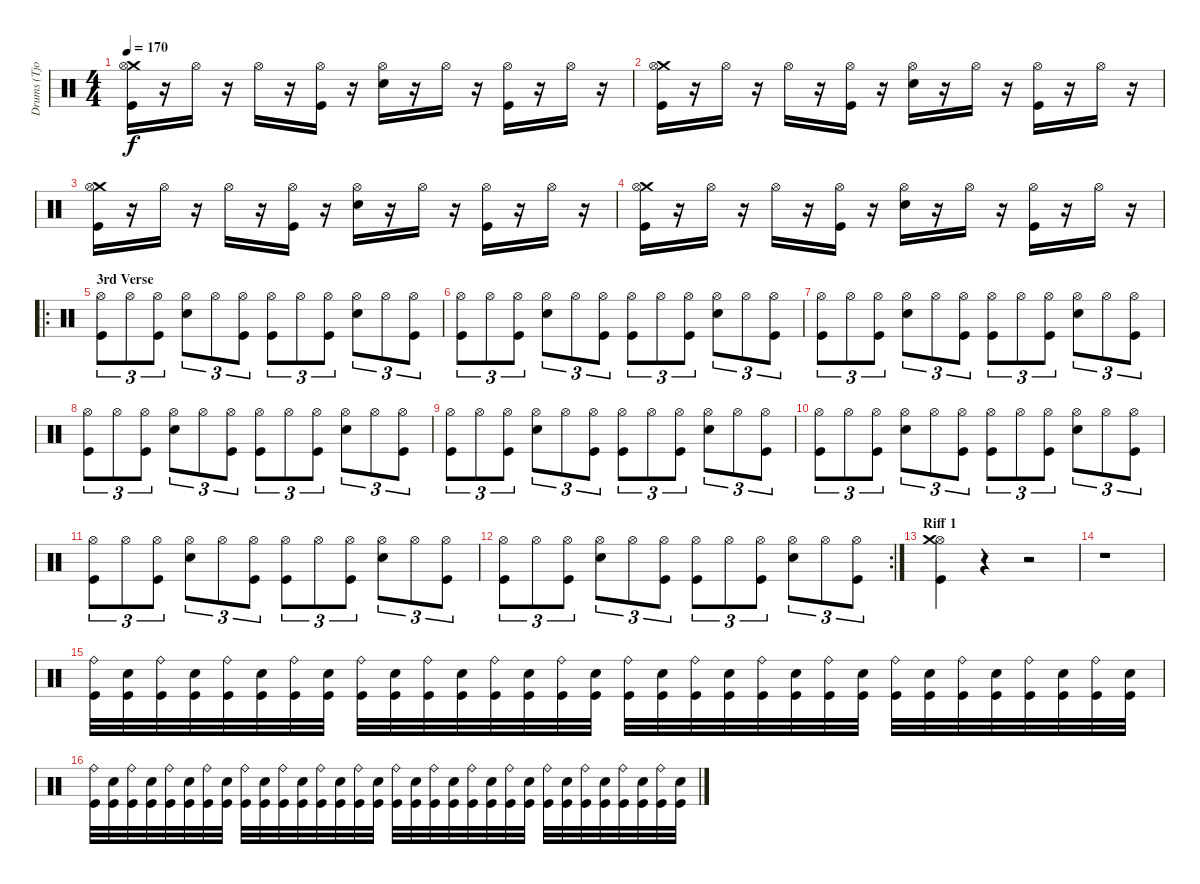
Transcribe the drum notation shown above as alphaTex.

\track ("Drums (Tjodalv)" "Drums (Tjo") {instrument percussion}
\staff {score}
\articulation defaults
\ts (4 4)
\tempo 170
\clef neutral
\ks c
("Crash medium (hit)" "Hi-Hat (open)" "Kick (hit)").16{dy f} r.16 "Hi-Hat (open)".16 r.16 "Hi-Hat (open)".16 r.16 ("Kick (hit)" "Hi-Hat (open)").16 r.16 ("Electric Snare (hit)" "Hi-Hat (open)").16 r.16 "Hi-Hat (open)".16 r.16 ("Kick (hit)" "Hi-Hat (open)").16 r.16 "Hi-Hat (open)".16 r.16 |
("Crash medium (hit)" "Hi-Hat (open)" "Kick (hit)").16 r.16 "Hi-Hat (open)".16 r.16 "Hi-Hat (open)".16 r.16 ("Kick (hit)" "Hi-Hat (open)").16 r.16 ("Electric Snare (hit)" "Hi-Hat (open)").16 r.16 "Hi-Hat (open)".16 r.16 ("Kick (hit)" "Hi-Hat (open)").16 r.16 "Hi-Hat (open)".16 r.16 |
("Crash medium (hit)" "Hi-Hat (open)" "Kick (hit)").16 r.16 "Hi-Hat (open)".16 r.16 "Hi-Hat (open)".16 r.16 ("Kick (hit)" "Hi-Hat (open)").16 r.16 ("Electric Snare (hit)" "Hi-Hat (open)").16 r.16 "Hi-Hat (open)".16 r.16 ("Kick (hit)" "Hi-Hat (open)").16 r.16 "Hi-Hat (open)".16 r.16 |
("Crash medium (hit)" "Hi-Hat (open)" "Kick (hit)").16 r.16 "Hi-Hat (open)".16 r.16 "Hi-Hat (open)".16 r.16 ("Kick (hit)" "Hi-Hat (open)").16 r.16 ("Electric Snare (hit)" "Hi-Hat (open)").16 r.16 "Hi-Hat (open)".16 r.16 ("Kick (hit)" "Hi-Hat (open)").16 r.16 "Hi-Hat (open)".16 r.16 |
\ro
\section ("" "3rd Verse")
("Hi-Hat (open)" "Kick (hit)").8{tu (3 2)} "Hi-Hat (open)".8{tu (3 2)} ("Hi-Hat (open)" "Kick (hit)").8{tu (3 2)} ("Hi-Hat (open)" "Electric Snare (hit)").8{tu (3 2)} "Hi-Hat (open)".8{tu (3 2)} ("Hi-Hat (open)" "Kick (hit)").8{tu (3 2)} ("Hi-Hat (open)" "Kick (hit)").8{tu (3 2)} "Hi-Hat (open)".8{tu (3 2)} ("Hi-Hat (open)" "Kick (hit)").8{tu (3 2)} ("Hi-Hat (open)" "Electric Snare (hit)").8{tu (3 2)} "Hi-Hat (open)".8{tu (3 2)} ("Hi-Hat (open)" "Kick (hit)").8{tu (3 2)} |
("Hi-Hat (open)" "Kick (hit)").8{tu (3 2)} "Hi-Hat (open)".8{tu (3 2)} ("Hi-Hat (open)" "Kick (hit)").8{tu (3 2)} ("Hi-Hat (open)" "Electric Snare (hit)").8{tu (3 2)} "Hi-Hat (open)".8{tu (3 2)} ("Hi-Hat (open)" "Kick (hit)").8{tu (3 2)} ("Hi-Hat (open)" "Kick (hit)").8{tu (3 2)} "Hi-Hat (open)".8{tu (3 2)} ("Hi-Hat (open)" "Kick (hit)").8{tu (3 2)} ("Hi-Hat (open)" "Electric Snare (hit)").8{tu (3 2)} "Hi-Hat (open)".8{tu (3 2)} ("Hi-Hat (open)" "Kick (hit)").8{tu (3 2)} |
("Hi-Hat (open)" "Kick (hit)").8{tu (3 2)} "Hi-Hat (open)".8{tu (3 2)} ("Hi-Hat (open)" "Kick (hit)").8{tu (3 2)} ("Hi-Hat (open)" "Electric Snare (hit)").8{tu (3 2)} "Hi-Hat (open)".8{tu (3 2)} ("Hi-Hat (open)" "Kick (hit)").8{tu (3 2)} ("Hi-Hat (open)" "Kick (hit)").8{tu (3 2)} "Hi-Hat (open)".8{tu (3 2)} ("Hi-Hat (open)" "Kick (hit)").8{tu (3 2)} ("Hi-Hat (open)" "Electric Snare (hit)").8{tu (3 2)} "Hi-Hat (open)".8{tu (3 2)} ("Hi-Hat (open)" "Kick (hit)").8{tu (3 2)} |
("Hi-Hat (open)" "Kick (hit)").8{tu (3 2)} "Hi-Hat (open)".8{tu (3 2)} ("Hi-Hat (open)" "Kick (hit)").8{tu (3 2)} ("Hi-Hat (open)" "Electric Snare (hit)").8{tu (3 2)} "Hi-Hat (open)".8{tu (3 2)} ("Hi-Hat (open)" "Kick (hit)").8{tu (3 2)} ("Hi-Hat (open)" "Kick (hit)").8{tu (3 2)} "Hi-Hat (open)".8{tu (3 2)} ("Hi-Hat (open)" "Kick (hit)").8{tu (3 2)} ("Hi-Hat (open)" "Electric Snare (hit)").8{tu (3 2)} "Hi-Hat (open)".8{tu (3 2)} ("Hi-Hat (open)" "Kick (hit)").8{tu (3 2)} |
("Hi-Hat (open)" "Kick (hit)").8{tu (3 2)} "Hi-Hat (open)".8{tu (3 2)} ("Hi-Hat (open)" "Kick (hit)").8{tu (3 2)} ("Hi-Hat (open)" "Electric Snare (hit)").8{tu (3 2)} "Hi-Hat (open)".8{tu (3 2)} ("Hi-Hat (open)" "Kick (hit)").8{tu (3 2)} ("Hi-Hat (open)" "Kick (hit)").8{tu (3 2)} "Hi-Hat (open)".8{tu (3 2)} ("Hi-Hat (open)" "Kick (hit)").8{tu (3 2)} ("Hi-Hat (open)" "Electric Snare (hit)").8{tu (3 2)} "Hi-Hat (open)".8{tu (3 2)} ("Hi-Hat (open)" "Kick (hit)").8{tu (3 2)} |
("Hi-Hat (open)" "Kick (hit)").8{tu (3 2)} "Hi-Hat (open)".8{tu (3 2)} ("Hi-Hat (open)" "Kick (hit)").8{tu (3 2)} ("Hi-Hat (open)" "Electric Snare (hit)").8{tu (3 2)} "Hi-Hat (open)".8{tu (3 2)} ("Hi-Hat (open)" "Kick (hit)").8{tu (3 2)} ("Hi-Hat (open)" "Kick (hit)").8{tu (3 2)} "Hi-Hat (open)".8{tu (3 2)} ("Hi-Hat (open)" "Kick (hit)").8{tu (3 2)} ("Hi-Hat (open)" "Electric Snare (hit)").8{tu (3 2)} "Hi-Hat (open)".8{tu (3 2)} ("Hi-Hat (open)" "Kick (hit)").8{tu (3 2)} |
("Hi-Hat (open)" "Kick (hit)").8{tu (3 2)} "Hi-Hat (open)".8{tu (3 2)} ("Hi-Hat (open)" "Kick (hit)").8{tu (3 2)} ("Hi-Hat (open)" "Electric Snare (hit)").8{tu (3 2)} "Hi-Hat (open)".8{tu (3 2)} ("Hi-Hat (open)" "Kick (hit)").8{tu (3 2)} ("Hi-Hat (open)" "Kick (hit)").8{tu (3 2)} "Hi-Hat (open)".8{tu (3 2)} ("Hi-Hat (open)" "Kick (hit)").8{tu (3 2)} ("Hi-Hat (open)" "Electric Snare (hit)").8{tu (3 2)} "Hi-Hat (open)".8{tu (3 2)} ("Hi-Hat (open)" "Kick (hit)").8{tu (3 2)} |
\rc 2
("Hi-Hat (open)" "Kick (hit)").8{tu (3 2)} "Hi-Hat (open)".8{tu (3 2)} ("Hi-Hat (open)" "Kick (hit)").8{tu (3 2)} ("Hi-Hat (open)" "Electric Snare (hit)").8{tu (3 2)} "Hi-Hat (open)".8{tu (3 2)} ("Hi-Hat (open)" "Kick (hit)").8{tu (3 2)} ("Hi-Hat (open)" "Kick (hit)").8{tu (3 2)} "Hi-Hat (open)".8{tu (3 2)} ("Hi-Hat (open)" "Kick (hit)").8{tu (3 2)} ("Hi-Hat (open)" "Electric Snare (hit)").8{tu (3 2)} "Hi-Hat (open)".8{tu (3 2)} ("Hi-Hat (open)" "Kick (hit)").8{tu (3 2)} |
\section ("" "Riff 1")
("Hi-Hat (open)" "Kick (hit)" "Crash medium (hit)").4 r.4 r.2 |
r.1 |
("Ride (bell)" "Kick (hit)").32 ("Electric Snare (hit)" "Kick (hit)").32 ("Ride (bell)" "Kick (hit)").32 ("Electric Snare (hit)" "Kick (hit)").32 ("Ride (bell)" "Kick (hit)").32 ("Kick (hit)" "Electric Snare (hit)").32 ("Ride (bell)" "Kick (hit)").32 ("Kick (hit)" "Electric Snare (hit)").32 ("Ride (bell)" "Kick (hit)").32 ("Electric Snare (hit)" "Kick (hit)").32 ("Ride (bell)" "Kick (hit)").32 ("Electric Snare (hit)" "Kick (hit)").32 ("Ride (bell)" "Kick (hit)").32 ("Electric Snare (hit)" "Kick (hit)").32 ("Ride (bell)" "Kick (hit)").32 ("Electric Snare (hit)" "Kick (hit)").32 ("Ride (bell)" "Kick (hit)").32 ("Electric Snare (hit)" "Kick (hit)").32 ("Ride (bell)" "Kick (hit)").32 ("Electric Snare (hit)" "Kick (hit)").32 ("Ride (bell)" "Kick (hit)").32 ("Electric Snare (hit)" "Kick (hit)").32 ("Ride (bell)" "Kick (hit)").32 ("Electric Snare (hit)" "Kick (hit)").32 ("Ride (bell)" "Kick (hit)").32 ("Electric Snare (hit)" "Kick (hit)").32 ("Ride (bell)" "Kick (hit)").32 ("Electric Snare (hit)" "Kick (hit)").32 ("Ride (bell)" "Kick (hit)").32 ("Electric Snare (hit)" "Kick (hit)").32 ("Ride (bell)" "Kick (hit)").32 ("Electric Snare (hit)" "Kick (hit)").32 |
("Ride (bell)" "Kick (hit)").32 ("Electric Snare (hit)" "Kick (hit)").32 ("Ride (bell)" "Kick (hit)").32 ("Electric Snare (hit)" "Kick (hit)").32 ("Ride (bell)" "Kick (hit)").32 ("Kick (hit)" "Electric Snare (hit)").32 ("Ride (bell)" "Kick (hit)").32 ("Kick (hit)" "Electric Snare (hit)").32 ("Ride (bell)" "Kick (hit)").32 ("Electric Snare (hit)" "Kick (hit)").32 ("Ride (bell)" "Kick (hit)").32 ("Electric Snare (hit)" "Kick (hit)").32 ("Ride (bell)" "Kick (hit)").32 ("Electric Snare (hit)" "Kick (hit)").32 ("Ride (bell)" "Kick (hit)").32 ("Electric Snare (hit)" "Kick (hit)").32 ("Ride (bell)" "Kick (hit)").32 ("Electric Snare (hit)" "Kick (hit)").32 ("Ride (bell)" "Kick (hit)").32 ("Electric Snare (hit)" "Kick (hit)").32 ("Ride (bell)" "Kick (hit)").32 ("Electric Snare (hit)" "Kick (hit)").32 ("Ride (bell)" "Kick (hit)").32 ("Electric Snare (hit)" "Kick (hit)").32 ("Ride (bell)" "Kick (hit)").32 ("Electric Snare (hit)" "Kick (hit)").32 ("Ride (bell)" "Kick (hit)").32 ("Electric Snare (hit)" "Kick (hit)").32 ("Ride (bell)" "Kick (hit)").32 ("Electric Snare (hit)" "Kick (hit)").32 ("Ride (bell)" "Kick (hit)").32 ("Electric Snare (hit)" "Kick (hit)").32
